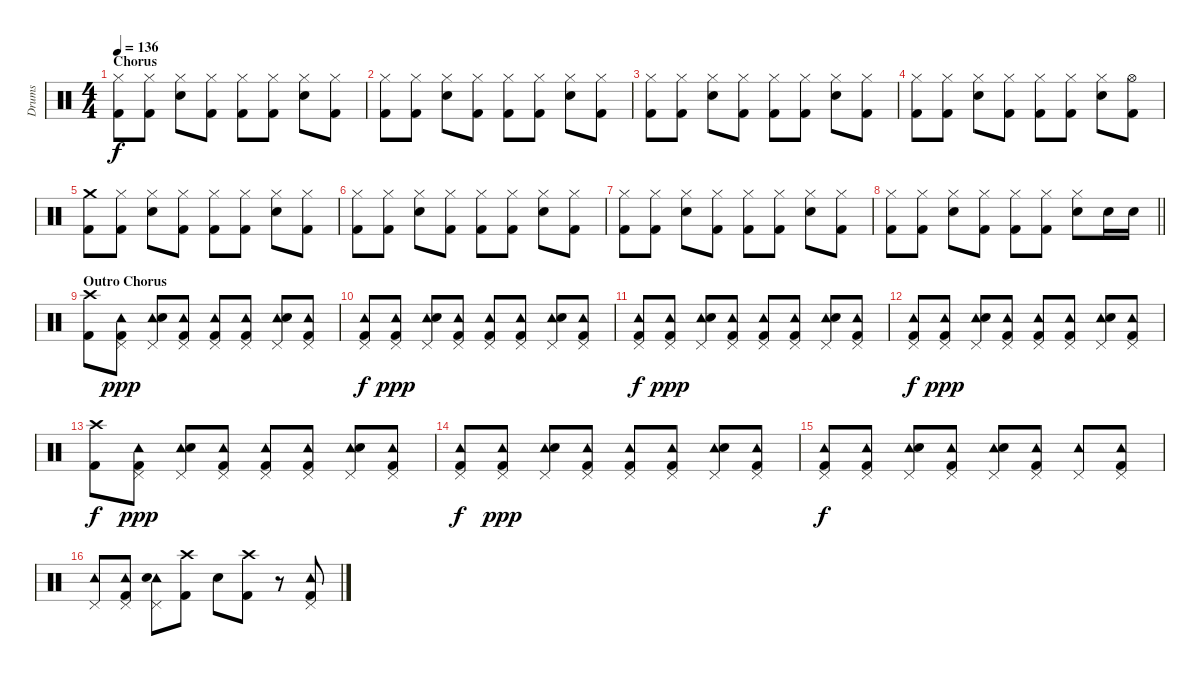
\track ("Drums" "Drums") {instrument percussion}
\staff {score}
\articulation defaults
\ts (4 4)
\section ("" "Chorus")
\tempo 136
\clef neutral
\ks c
("Hi-Hat (closed)" "Kick (hit) 2").8{dy f} ("Hi-Hat (closed)" "Kick (hit) 2").8 ("Hi-Hat (closed)" "Snare (hit) 2").8 ("Hi-Hat (closed)" "Kick (hit) 2").8 ("Hi-Hat (closed)" "Kick (hit) 2").8 ("Hi-Hat (closed)" "Kick (hit) 2").8 ("Hi-Hat (closed)" "Snare (hit) 2").8 ("Hi-Hat (closed)" "Kick (hit) 2").8 |
("Hi-Hat (closed)" "Kick (hit) 2").8 ("Hi-Hat (closed)" "Kick (hit) 2").8 ("Hi-Hat (closed)" "Snare (hit) 2").8 ("Hi-Hat (closed)" "Kick (hit) 2").8 ("Hi-Hat (closed)" "Kick (hit) 2").8 ("Hi-Hat (closed)" "Kick (hit) 2").8 ("Hi-Hat (closed)" "Snare (hit) 2").8 ("Hi-Hat (closed)" "Kick (hit) 2").8 |
("Hi-Hat (closed)" "Kick (hit) 2").8 ("Hi-Hat (closed)" "Kick (hit) 2").8 ("Hi-Hat (closed)" "Snare (hit) 2").8 ("Hi-Hat (closed)" "Kick (hit) 2").8 ("Hi-Hat (closed)" "Kick (hit) 2").8 ("Hi-Hat (closed)" "Kick (hit) 2").8 ("Hi-Hat (closed)" "Snare (hit) 2").8 ("Hi-Hat (closed)" "Kick (hit) 2").8 |
("Hi-Hat (closed)" "Kick (hit) 2").8 ("Hi-Hat (closed)" "Kick (hit) 2").8 ("Hi-Hat (closed)" "Snare (hit) 2").8 ("Hi-Hat (closed)" "Kick (hit) 2").8 ("Hi-Hat (closed)" "Kick (hit) 2").8 ("Hi-Hat (closed)" "Kick (hit) 2").8 ("Hi-Hat (closed)" "Snare (hit) 2").8 ("Hi-Hat (open)" "Kick (hit) 2").8 |
("Crash medium (hit)" "Kick (hit) 2").8 ("Hi-Hat (closed)" "Kick (hit) 2").8 ("Hi-Hat (closed)" "Snare (hit) 2").8 ("Hi-Hat (closed)" "Kick (hit) 2").8 ("Hi-Hat (closed)" "Kick (hit) 2").8 ("Hi-Hat (closed)" "Kick (hit) 2").8 ("Hi-Hat (closed)" "Snare (hit) 2").8 ("Hi-Hat (closed)" "Kick (hit) 2").8 |
("Hi-Hat (closed)" "Kick (hit) 2").8 ("Hi-Hat (closed)" "Kick (hit) 2").8 ("Hi-Hat (closed)" "Snare (hit) 2").8 ("Hi-Hat (closed)" "Kick (hit) 2").8 ("Hi-Hat (closed)" "Kick (hit) 2").8 ("Hi-Hat (closed)" "Kick (hit) 2").8 ("Hi-Hat (closed)" "Snare (hit) 2").8 ("Hi-Hat (closed)" "Kick (hit) 2").8 |
("Hi-Hat (closed)" "Kick (hit) 2").8 ("Hi-Hat (closed)" "Kick (hit) 2").8 ("Hi-Hat (closed)" "Snare (hit) 2").8 ("Hi-Hat (closed)" "Kick (hit) 2").8 ("Hi-Hat (closed)" "Kick (hit) 2").8 ("Hi-Hat (closed)" "Kick (hit) 2").8 ("Hi-Hat (closed)" "Snare (hit) 2").8 ("Hi-Hat (closed)" "Kick (hit) 2").8 |
\barLineRight lightlight
("Hi-Hat (closed)" "Kick (hit) 2").8 ("Hi-Hat (closed)" "Kick (hit) 2").8 ("Hi-Hat (closed)" "Snare (hit) 2").8 ("Hi-Hat (closed)" "Kick (hit) 2").8 ("Hi-Hat (closed)" "Kick (hit) 2").8 ("Hi-Hat (closed)" "Kick (hit) 2").8 ("Hi-Hat (closed)" "Snare (hit) 2").8 "Snare (hit) 2".16 "Snare (hit) 2".16 |
\section ("" "Outro Chorus")
("Crash high (hit)" "Kick (hit) 2").8 ("Pedal Hi-Hat (hit)" "Tambourine (hit)" "Kick (hit) 2").8{dy ppp} ("Pedal Hi-Hat (hit)" "Tambourine (hit)" "Snare (hit) 2").8 ("Pedal Hi-Hat (hit)" "Tambourine (hit)" "Kick (hit) 2").8 ("Pedal Hi-Hat (hit)" "Tambourine (hit)" "Kick (hit) 2").8 ("Pedal Hi-Hat (hit)" "Tambourine (hit)" "Kick (hit) 2").8 ("Pedal Hi-Hat (hit)" "Tambourine (hit)" "Snare (hit) 2").8 ("Pedal Hi-Hat (hit)" "Tambourine (hit)" "Kick (hit) 2").8 |
("Pedal Hi-Hat (hit)" "Tambourine (hit)" "Kick (hit) 2").8{dy f} ("Pedal Hi-Hat (hit)" "Tambourine (hit)" "Kick (hit) 2").8{dy ppp} ("Pedal Hi-Hat (hit)" "Tambourine (hit)" "Snare (hit) 2").8 ("Pedal Hi-Hat (hit)" "Tambourine (hit)" "Kick (hit) 2").8 ("Pedal Hi-Hat (hit)" "Tambourine (hit)" "Kick (hit) 2").8 ("Pedal Hi-Hat (hit)" "Tambourine (hit)" "Kick (hit) 2").8 ("Pedal Hi-Hat (hit)" "Tambourine (hit)" "Snare (hit) 2").8 ("Pedal Hi-Hat (hit)" "Tambourine (hit)" "Kick (hit) 2").8 |
("Pedal Hi-Hat (hit)" "Tambourine (hit)" "Kick (hit) 2").8{dy f} ("Pedal Hi-Hat (hit)" "Tambourine (hit)" "Kick (hit) 2").8{dy ppp} ("Pedal Hi-Hat (hit)" "Tambourine (hit)" "Snare (hit) 2").8 ("Pedal Hi-Hat (hit)" "Tambourine (hit)" "Kick (hit) 2").8 ("Pedal Hi-Hat (hit)" "Tambourine (hit)" "Kick (hit) 2").8 ("Pedal Hi-Hat (hit)" "Tambourine (hit)" "Kick (hit) 2").8 ("Pedal Hi-Hat (hit)" "Tambourine (hit)" "Snare (hit) 2").8 ("Pedal Hi-Hat (hit)" "Tambourine (hit)" "Kick (hit) 2").8 |
("Pedal Hi-Hat (hit)" "Tambourine (hit)" "Kick (hit) 2").8{dy f} ("Pedal Hi-Hat (hit)" "Tambourine (hit)" "Kick (hit) 2").8{dy ppp} ("Pedal Hi-Hat (hit)" "Tambourine (hit)" "Snare (hit) 2").8 ("Pedal Hi-Hat (hit)" "Tambourine (hit)" "Kick (hit) 2").8 ("Pedal Hi-Hat (hit)" "Tambourine (hit)" "Kick (hit) 2").8 ("Pedal Hi-Hat (hit)" "Tambourine (hit)" "Kick (hit) 2").8 ("Pedal Hi-Hat (hit)" "Tambourine (hit)" "Snare (hit) 2").8 ("Pedal Hi-Hat (hit)" "Tambourine (hit)" "Kick (hit) 2").8 |
("Crash high (hit)" "Kick (hit) 2").8{dy f} ("Pedal Hi-Hat (hit)" "Tambourine (hit)" "Kick (hit) 2").8{dy ppp} ("Pedal Hi-Hat (hit)" "Tambourine (hit)" "Snare (hit) 2").8 ("Pedal Hi-Hat (hit)" "Tambourine (hit)" "Kick (hit) 2").8 ("Pedal Hi-Hat (hit)" "Tambourine (hit)" "Kick (hit) 2").8 ("Pedal Hi-Hat (hit)" "Tambourine (hit)" "Kick (hit) 2").8 ("Pedal Hi-Hat (hit)" "Tambourine (hit)" "Snare (hit) 2").8 ("Pedal Hi-Hat (hit)" "Tambourine (hit)" "Kick (hit) 2").8 |
("Pedal Hi-Hat (hit)" "Tambourine (hit)" "Kick (hit) 2").8{dy f} ("Pedal Hi-Hat (hit)" "Tambourine (hit)" "Kick (hit) 2").8{dy ppp} ("Pedal Hi-Hat (hit)" "Tambourine (hit)" "Snare (hit) 2").8 ("Pedal Hi-Hat (hit)" "Tambourine (hit)" "Kick (hit) 2").8 ("Pedal Hi-Hat (hit)" "Tambourine (hit)" "Kick (hit) 2").8 ("Pedal Hi-Hat (hit)" "Tambourine (hit)" "Kick (hit) 2").8 ("Pedal Hi-Hat (hit)" "Tambourine (hit)" "Snare (hit) 2").8 ("Pedal Hi-Hat (hit)" "Tambourine (hit)" "Kick (hit) 2").8 |
("Pedal Hi-Hat (hit)" "Tambourine (hit)" "Kick (hit) 2").8{dy f} ("Pedal Hi-Hat (hit)" "Tambourine (hit)" "Kick (hit) 2").8 ("Pedal Hi-Hat (hit)" "Tambourine (hit)" "Snare (hit) 2").8 ("Pedal Hi-Hat (hit)" "Tambourine (hit)" "Kick (hit) 2").8 ("Pedal Hi-Hat (hit)" "Tambourine (hit)" "Snare (hit) 2").8 ("Pedal Hi-Hat (hit)" "Tambourine (hit)" "Kick (hit) 2").8 ("Pedal Hi-Hat (hit)" "Tambourine (hit)").8 ("Pedal Hi-Hat (hit)" "Tambourine (hit)" "Kick (hit) 2").8 |
("Pedal Hi-Hat (hit)" "Tambourine (hit)").8 ("Pedal Hi-Hat (hit)" "Tambourine (hit)" "Kick (hit) 2").8 ("Pedal Hi-Hat (hit)" "Tambourine (hit)" "Snare (hit) 2").8 ("Crash high (hit)" "Kick (hit) 2").8 "Snare (hit) 2".8 ("Crash high (hit)" "Kick (hit) 2").8 r.8 ("Pedal Hi-Hat (hit)" "Tambourine (hit)" "Kick (hit) 2").8
